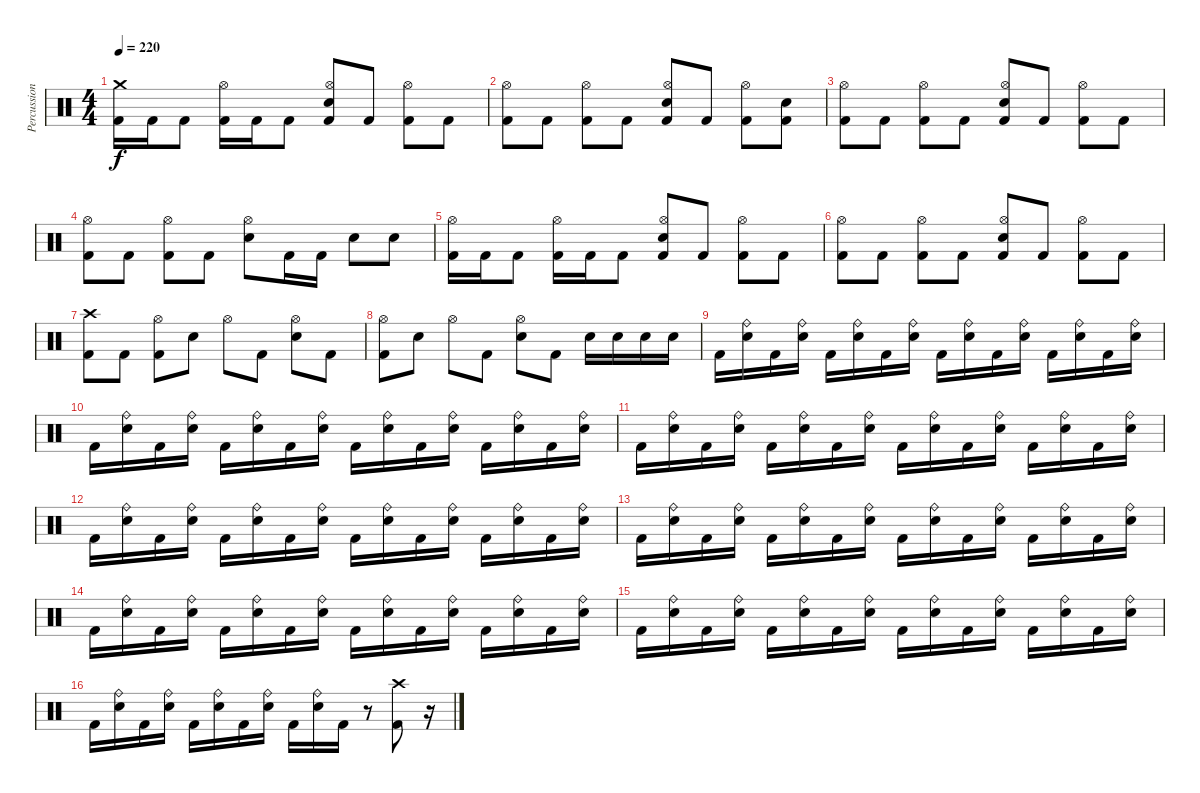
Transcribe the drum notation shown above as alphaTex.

\track ("Percussion (Dan Wilding)" "Percussion") {instrument percussion}
\staff {score}
\articulation defaults
\ts (4 4)
\tempo 220
\clef neutral
\ks c
("Crash medium (hit)" "Kick (hit) 2").16{dy f} "Kick (hit) 2".16 "Kick (hit) 2".8 ("Hi-Hat (open)" "Kick (hit) 2").16 "Kick (hit) 2".16 "Kick (hit) 2".8 ("Hi-Hat (open)" "Electric Snare (hit)" "Kick (hit) 2").8 "Kick (hit) 2".8 ("Hi-Hat (open)" "Kick (hit) 2").8 "Kick (hit) 2".8 |
("Hi-Hat (open)" "Kick (hit) 2").8 "Kick (hit) 2".8 ("Hi-Hat (open)" "Kick (hit) 2").8 "Kick (hit) 2".8 ("Hi-Hat (open)" "Electric Snare (hit)" "Kick (hit) 2").8 "Kick (hit) 2".8 ("Hi-Hat (open)" "Kick (hit) 2").8 ("Electric Snare (hit)" "Kick (hit) 2").8 |
("Hi-Hat (open)" "Kick (hit) 2").8 "Kick (hit) 2".8 ("Hi-Hat (open)" "Kick (hit) 2").8 "Kick (hit) 2".8 ("Hi-Hat (open)" "Electric Snare (hit)" "Kick (hit) 2").8 "Kick (hit) 2".8 ("Hi-Hat (open)" "Kick (hit) 2").8 "Kick (hit) 2".8 |
("Hi-Hat (open)" "Kick (hit) 2").8 "Kick (hit) 2".8 ("Hi-Hat (open)" "Kick (hit) 2").8 "Kick (hit) 2".8 ("Hi-Hat (open)" "Electric Snare (hit)").8 "Kick (hit) 2".16 "Kick (hit) 2".16 "Electric Snare (hit)".8 "Electric Snare (hit)".8 |
("Hi-Hat (open)" "Kick (hit) 2").16 "Kick (hit) 2".16 "Kick (hit) 2".8 ("Hi-Hat (open)" "Kick (hit) 2").16 "Kick (hit) 2".16 "Kick (hit) 2".8 ("Hi-Hat (open)" "Electric Snare (hit)" "Kick (hit) 2").8 "Kick (hit) 2".8 ("Hi-Hat (open)" "Kick (hit) 2").8 "Kick (hit) 2".8 |
("Hi-Hat (open)" "Kick (hit) 2").8 "Kick (hit) 2".8 ("Hi-Hat (open)" "Kick (hit) 2").8 "Kick (hit) 2".8 ("Hi-Hat (open)" "Electric Snare (hit)" "Kick (hit) 2").8 "Kick (hit) 2".8 ("Hi-Hat (open)" "Kick (hit) 2").8 "Kick (hit) 2".8 |
("Crash high (hit)" "Kick (hit) 2").8 "Kick (hit) 2".8 ("Hi-Hat (open)" "Kick (hit) 2").8 "Electric Snare (hit)".8 "Hi-Hat (open)".8 "Kick (hit) 2".8 ("Hi-Hat (open)" "Electric Snare (hit)").8 "Kick (hit) 2".8 |
("Hi-Hat (open)" "Kick (hit) 2").8 "Electric Snare (hit)".8 "Hi-Hat (open)".8 "Kick (hit) 2".8 ("Hi-Hat (open)" "Electric Snare (hit)").8 "Kick (hit) 2".8 "Electric Snare (hit)".16 "Electric Snare (hit)".16 "Electric Snare (hit)".16 "Electric Snare (hit)".16 |
"Kick (hit) 2".16 ("Ride (bell)" "Electric Snare (hit)").16 "Kick (hit) 2".16 ("Ride (bell)" "Electric Snare (hit)").16 "Kick (hit) 2".16 ("Ride (bell)" "Electric Snare (hit)").16 "Kick (hit) 2".16 ("Ride (bell)" "Electric Snare (hit)").16 "Kick (hit) 2".16 ("Ride (bell)" "Electric Snare (hit)").16 "Kick (hit) 2".16 ("Ride (bell)" "Electric Snare (hit)").16 "Kick (hit) 2".16 ("Ride (bell)" "Electric Snare (hit)").16 "Kick (hit) 2".16 ("Ride (bell)" "Electric Snare (hit)").16 |
"Kick (hit) 2".16 ("Ride (bell)" "Electric Snare (hit)").16 "Kick (hit) 2".16 ("Ride (bell)" "Electric Snare (hit)").16 "Kick (hit) 2".16 ("Ride (bell)" "Electric Snare (hit)").16 "Kick (hit) 2".16 ("Ride (bell)" "Electric Snare (hit)").16 "Kick (hit) 2".16 ("Ride (bell)" "Electric Snare (hit)").16 "Kick (hit) 2".16 ("Ride (bell)" "Electric Snare (hit)").16 "Kick (hit) 2".16 ("Ride (bell)" "Electric Snare (hit)").16 "Kick (hit) 2".16 ("Ride (bell)" "Electric Snare (hit)").16 |
"Kick (hit) 2".16 ("Ride (bell)" "Electric Snare (hit)").16 "Kick (hit) 2".16 ("Ride (bell)" "Electric Snare (hit)").16 "Kick (hit) 2".16 ("Ride (bell)" "Electric Snare (hit)").16 "Kick (hit) 2".16 ("Ride (bell)" "Electric Snare (hit)").16 "Kick (hit) 2".16 ("Ride (bell)" "Electric Snare (hit)").16 "Kick (hit) 2".16 ("Ride (bell)" "Electric Snare (hit)").16 "Kick (hit) 2".16 ("Ride (bell)" "Electric Snare (hit)").16 "Kick (hit) 2".16 ("Ride (bell)" "Electric Snare (hit)").16 |
"Kick (hit) 2".16 ("Ride (bell)" "Electric Snare (hit)").16 "Kick (hit) 2".16 ("Ride (bell)" "Electric Snare (hit)").16 "Kick (hit) 2".16 ("Ride (bell)" "Electric Snare (hit)").16 "Kick (hit) 2".16 ("Ride (bell)" "Electric Snare (hit)").16 "Kick (hit) 2".16 ("Ride (bell)" "Electric Snare (hit)").16 "Kick (hit) 2".16 ("Ride (bell)" "Electric Snare (hit)").16 "Kick (hit) 2".16 ("Ride (bell)" "Electric Snare (hit)").16 "Kick (hit) 2".16 ("Ride (bell)" "Electric Snare (hit)").16 |
"Kick (hit) 2".16 ("Ride (bell)" "Electric Snare (hit)").16 "Kick (hit) 2".16 ("Ride (bell)" "Electric Snare (hit)").16 "Kick (hit) 2".16 ("Ride (bell)" "Electric Snare (hit)").16 "Kick (hit) 2".16 ("Ride (bell)" "Electric Snare (hit)").16 "Kick (hit) 2".16 ("Ride (bell)" "Electric Snare (hit)").16 "Kick (hit) 2".16 ("Ride (bell)" "Electric Snare (hit)").16 "Kick (hit) 2".16 ("Ride (bell)" "Electric Snare (hit)").16 "Kick (hit) 2".16 ("Ride (bell)" "Electric Snare (hit)").16 |
"Kick (hit) 2".16 ("Ride (bell)" "Electric Snare (hit)").16 "Kick (hit) 2".16 ("Ride (bell)" "Electric Snare (hit)").16 "Kick (hit) 2".16 ("Ride (bell)" "Electric Snare (hit)").16 "Kick (hit) 2".16 ("Ride (bell)" "Electric Snare (hit)").16 "Kick (hit) 2".16 ("Ride (bell)" "Electric Snare (hit)").16 "Kick (hit) 2".16 ("Ride (bell)" "Electric Snare (hit)").16 "Kick (hit) 2".16 ("Ride (bell)" "Electric Snare (hit)").16 "Kick (hit) 2".16 ("Ride (bell)" "Electric Snare (hit)").16 |
"Kick (hit) 2".16 ("Ride (bell)" "Electric Snare (hit)").16 "Kick (hit) 2".16 ("Ride (bell)" "Electric Snare (hit)").16 "Kick (hit) 2".16 ("Ride (bell)" "Electric Snare (hit)").16 "Kick (hit) 2".16 ("Ride (bell)" "Electric Snare (hit)").16 "Kick (hit) 2".16 ("Ride (bell)" "Electric Snare (hit)").16 "Kick (hit) 2".16 ("Ride (bell)" "Electric Snare (hit)").16 "Kick (hit) 2".16 ("Ride (bell)" "Electric Snare (hit)").16 "Kick (hit) 2".16 ("Ride (bell)" "Electric Snare (hit)").16 |
"Kick (hit) 2".16 ("Ride (bell)" "Electric Snare (hit)").16 "Kick (hit) 2".16 ("Ride (bell)" "Electric Snare (hit)").16 "Kick (hit) 2".16 ("Ride (bell)" "Electric Snare (hit)").16 "Kick (hit) 2".16 ("Ride (bell)" "Electric Snare (hit)").16 "Kick (hit) 2".16 ("Ride (bell)" "Electric Snare (hit)").16 "Kick (hit) 2".16 r.8 ("Crash high (hit)" "Kick (hit) 2").8 r.16
